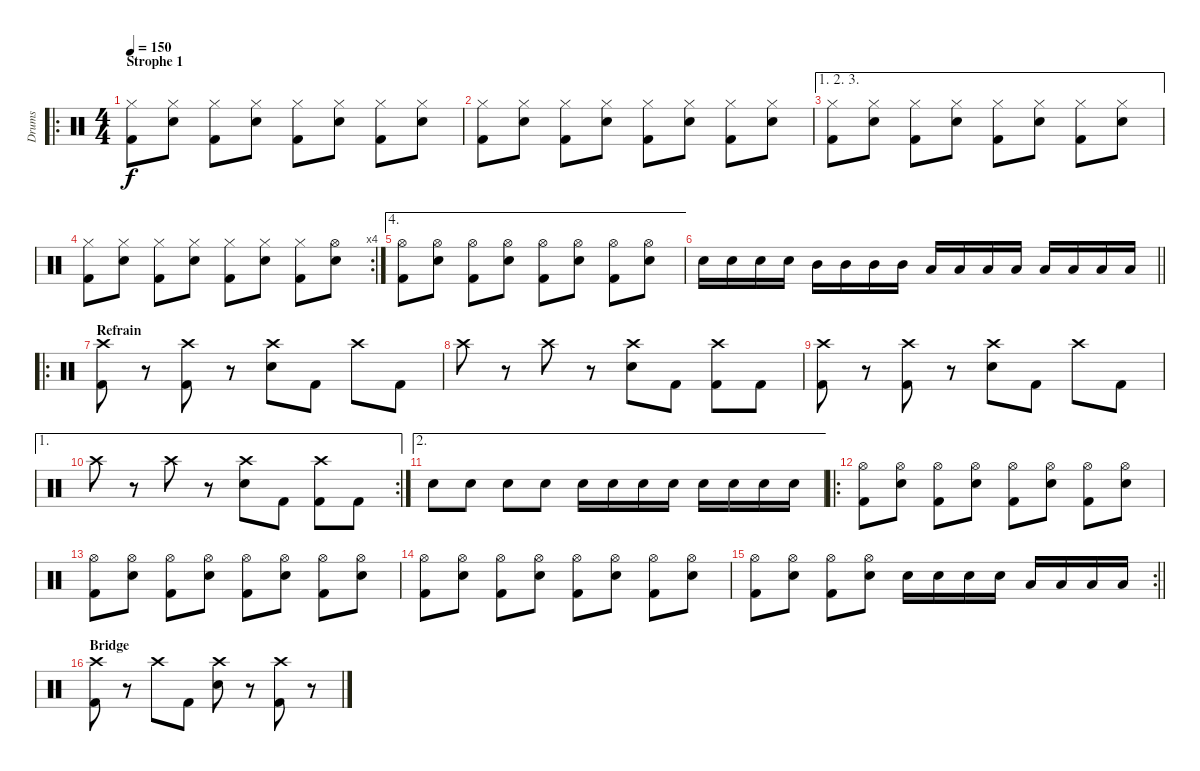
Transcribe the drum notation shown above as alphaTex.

\track ("Drums" "Drums") {instrument percussion}
\staff {score}
\articulation defaults
\ro
\ts (4 4)
\section ("" "Strophe 1")
\tempo 150
\clef neutral
\ks c
("Hi-Hat (closed)" "Kick (hit) 2").8{dy f} ("Hi-Hat (closed)" "Snare (hit) 2").8 ("Hi-Hat (closed)" "Kick (hit) 2").8 ("Hi-Hat (closed)" "Snare (hit) 2").8 ("Hi-Hat (closed)" "Kick (hit) 2").8 ("Hi-Hat (closed)" "Snare (hit) 2").8 ("Hi-Hat (closed)" "Kick (hit) 2").8 ("Hi-Hat (closed)" "Snare (hit) 2").8 |
("Hi-Hat (closed)" "Kick (hit) 2").8 ("Hi-Hat (closed)" "Snare (hit) 2").8 ("Hi-Hat (closed)" "Kick (hit) 2").8 ("Hi-Hat (closed)" "Snare (hit) 2").8 ("Hi-Hat (closed)" "Kick (hit) 2").8 ("Hi-Hat (closed)" "Snare (hit) 2").8 ("Hi-Hat (closed)" "Kick (hit) 2").8 ("Hi-Hat (closed)" "Snare (hit) 2").8 |
\ae (1 2 3)
("Hi-Hat (closed)" "Kick (hit) 2").8 ("Hi-Hat (closed)" "Snare (hit) 2").8 ("Hi-Hat (closed)" "Kick (hit) 2").8 ("Hi-Hat (closed)" "Snare (hit) 2").8 ("Hi-Hat (closed)" "Kick (hit) 2").8 ("Hi-Hat (closed)" "Snare (hit) 2").8 ("Hi-Hat (closed)" "Kick (hit) 2").8 ("Hi-Hat (closed)" "Snare (hit) 2").8 |
\rc 4
("Hi-Hat (closed)" "Kick (hit) 2").8 ("Hi-Hat (closed)" "Snare (hit) 2").8 ("Hi-Hat (closed)" "Kick (hit) 2").8 ("Hi-Hat (closed)" "Snare (hit) 2").8 ("Hi-Hat (closed)" "Kick (hit) 2").8 ("Hi-Hat (closed)" "Snare (hit) 2").8 ("Hi-Hat (closed)" "Kick (hit) 2").8 ("Hi-Hat (open)" "Snare (hit) 2").8 |
\ae 4
("Hi-Hat (open)" "Kick (hit) 2").8 ("Hi-Hat (open)" "Snare (hit) 2").8 ("Hi-Hat (open)" "Kick (hit) 2").8 ("Hi-Hat (open)" "Snare (hit) 2").8 ("Hi-Hat (open)" "Kick (hit) 2").8 ("Hi-Hat (open)" "Snare (hit) 2").8 ("Hi-Hat (open)" "Kick (hit) 2").8 ("Hi-Hat (open)" "Snare (hit) 2").8 |
\barLineRight lightlight "Snare (hit) 2".16 "Snare (hit) 2".16 "Snare (hit) 2".16 "Snare (hit) 2".16 "Mid Tom (hit)".16 "Mid Tom (hit)".16 "Mid Tom (hit)".16 "Mid Tom (hit)".16 "Low Tom (hit)".16 "Low Tom (hit)".16 "Low Tom (hit)".16 "Low Tom (hit)".16 "Low Floor Tom (hit)".16 "Low Floor Tom (hit)".16 "Low Floor Tom (hit)".16 "Low Floor Tom (hit)".16
|
\ro
\section ("" "Refrain")
("Crash high (hit)" "Kick (hit) 2").8 r.8 ("Crash high (hit)" "Kick (hit) 2").8 r.8 ("Crash high (hit)" "Snare (hit) 2").8 "Kick (hit) 2".8 "Crash high (hit)".8 "Kick (hit) 2".8 |
"Crash high (hit)".8 r.8 "Crash high (hit)".8 r.8 ("Crash high (hit)" "Snare (hit) 2").8 "Kick (hit) 2".8 ("Crash high (hit)" "Kick (hit) 2").8 "Kick (hit) 2".8 |
("Crash high (hit)" "Kick (hit) 2").8 r.8 ("Crash high (hit)" "Kick (hit) 2").8 r.8 ("Crash high (hit)" "Snare (hit) 2").8 "Kick (hit) 2".8 "Crash high (hit)".8 "Kick (hit) 2".8 |
\ae 1
\rc 2 "Crash high (hit)".8
r.8 "Crash high (hit)".8 r.8 ("Crash high (hit)" "Snare (hit) 2").8 "Kick (hit) 2".8 ("Crash high (hit)" "Kick (hit) 2").8 "Kick (hit) 2".8 |
\ae 2 "Snare (hit) 2".8 "Snare (hit) 2".8 "Snare (hit) 2".8 "Snare (hit) 2".8 "Snare (hit) 2".16 "Snare (hit) 2".16 "Snare (hit) 2".16 "Snare (hit) 2".16 "Snare (hit) 2".16 "Snare (hit) 2".16 "Snare (hit) 2".16 "Snare (hit) 2".16
|
\ro
("Hi-Hat (open)" "Kick (hit) 2").8 ("Hi-Hat (open)" "Snare (hit) 2").8 ("Hi-Hat (open)" "Kick (hit) 2").8 ("Hi-Hat (open)" "Snare (hit) 2").8 ("Hi-Hat (open)" "Kick (hit) 2").8 ("Hi-Hat (open)" "Snare (hit) 2").8 ("Hi-Hat (open)" "Kick (hit) 2").8 ("Hi-Hat (open)" "Snare (hit) 2").8 |
("Hi-Hat (open)" "Kick (hit) 2").8 ("Hi-Hat (open)" "Snare (hit) 2").8 ("Hi-Hat (open)" "Kick (hit) 2").8 ("Hi-Hat (open)" "Snare (hit) 2").8 ("Hi-Hat (open)" "Kick (hit) 2").8 ("Hi-Hat (open)" "Snare (hit) 2").8 ("Hi-Hat (open)" "Kick (hit) 2").8 ("Hi-Hat (open)" "Snare (hit) 2").8 |
("Hi-Hat (open)" "Kick (hit) 2").8 ("Hi-Hat (open)" "Snare (hit) 2").8 ("Hi-Hat (open)" "Kick (hit) 2").8 ("Hi-Hat (open)" "Snare (hit) 2").8 ("Hi-Hat (open)" "Kick (hit) 2").8 ("Hi-Hat (open)" "Snare (hit) 2").8 ("Hi-Hat (open)" "Kick (hit) 2").8 ("Hi-Hat (open)" "Snare (hit) 2").8 |
\rc 2
\barLineRight lightlight
("Hi-Hat (open)" "Kick (hit) 2").8 ("Hi-Hat (open)" "Snare (hit) 2").8 ("Hi-Hat (open)" "Kick (hit) 2").8 ("Hi-Hat (open)" "Snare (hit) 2").8 "Snare (hit) 2".16 "Snare (hit) 2".16 "Snare (hit) 2".16 "Snare (hit) 2".16 "Low Tom (hit)".16 "Low Tom (hit)".16 "Low Floor Tom (hit)".16 "Low Floor Tom (hit)".16 |
\section ("" "Bridge")
("Crash high (hit)" "Kick (hit) 2").8 r.8 "Crash high (hit)".8 "Kick (hit) 2".8 ("Crash high (hit)" "Snare (hit) 2").8 r.8 ("Crash high (hit)" "Kick (hit) 2").8 r.8
